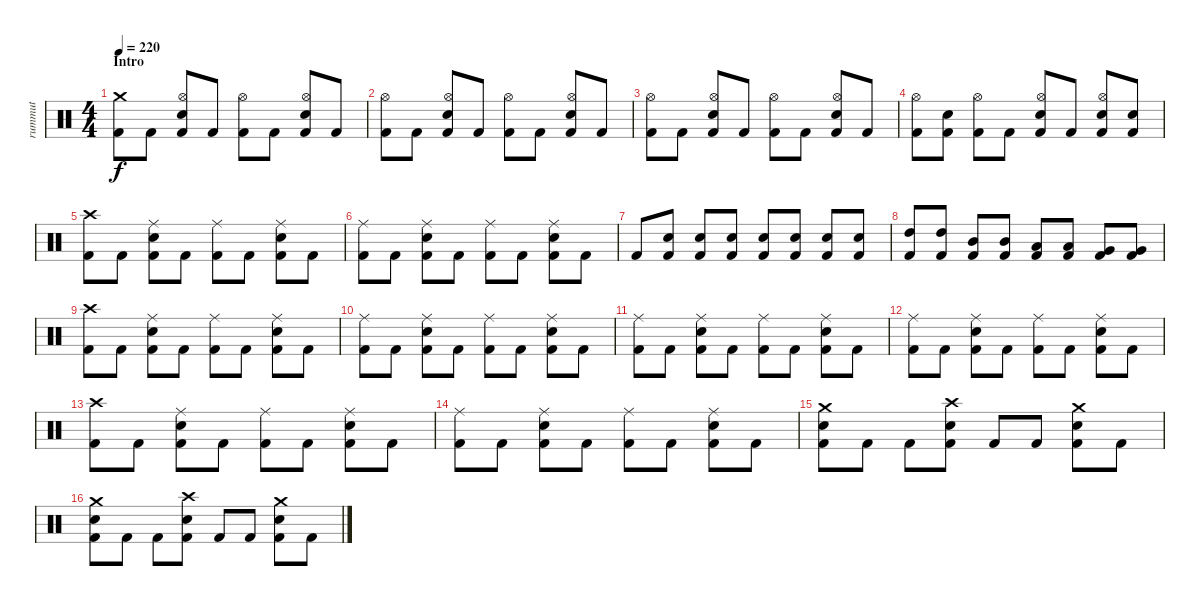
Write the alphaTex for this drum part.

\track ("rummut" "rummut") {instrument percussion}
\staff {score}
\articulation defaults
\ts (4 4)
\section ("" "Intro")
\tempo 220
\clef neutral
\ks c
("Crash medium (hit)" "Kick (hit) 2").8{dy f} "Kick (hit) 2".8 ("Hi-Hat (open)" "Electric Snare (hit)" "Kick (hit) 2").8 "Kick (hit) 2".8 ("Hi-Hat (open)" "Kick (hit) 2").8 "Kick (hit) 2".8 ("Hi-Hat (open)" "Electric Snare (hit)" "Kick (hit) 2").8 "Kick (hit) 2".8 |
("Hi-Hat (open)" "Kick (hit) 2").8 "Kick (hit) 2".8 ("Hi-Hat (open)" "Electric Snare (hit)" "Kick (hit) 2").8 "Kick (hit) 2".8 ("Hi-Hat (open)" "Kick (hit) 2").8 "Kick (hit) 2".8 ("Hi-Hat (open)" "Electric Snare (hit)" "Kick (hit) 2").8 "Kick (hit) 2".8 |
("Hi-Hat (open)" "Kick (hit) 2").8 "Kick (hit) 2".8 ("Hi-Hat (open)" "Electric Snare (hit)" "Kick (hit) 2").8 "Kick (hit) 2".8 ("Hi-Hat (open)" "Kick (hit) 2").8 "Kick (hit) 2".8 ("Hi-Hat (open)" "Electric Snare (hit)" "Kick (hit) 2").8 "Kick (hit) 2".8 |
("Hi-Hat (open)" "Kick (hit) 2").8 ("Electric Snare (hit)" "Kick (hit) 2").8 ("Hi-Hat (open)" "Kick (hit) 2").8 "Kick (hit) 2".8 ("Hi-Hat (open)" "Electric Snare (hit)" "Kick (hit) 2").8 "Kick (hit) 2".8 ("Hi-Hat (open)" "Electric Snare (hit)" "Kick (hit) 2").8 ("Electric Snare (hit)" "Kick (hit) 2").8 |
("Crash high (hit)" "Kick (hit) 2").8 "Kick (hit) 2".8 ("Ride (middle)" "Electric Snare (hit)" "Kick (hit) 2").8 "Kick (hit) 2".8 ("Ride (middle)" "Kick (hit) 2").8 "Kick (hit) 2".8 ("Ride (middle)" "Electric Snare (hit)" "Kick (hit) 2").8 "Kick (hit) 2".8 |
("Ride (middle)" "Kick (hit) 2").8 "Kick (hit) 2".8 ("Ride (middle)" "Electric Snare (hit)" "Kick (hit) 2").8 "Kick (hit) 2".8 ("Ride (middle)" "Kick (hit) 2").8 "Kick (hit) 2".8 ("Ride (middle)" "Electric Snare (hit)" "Kick (hit) 2").8 "Kick (hit) 2".8 |
"Kick (hit) 2".8 ("Electric Snare (hit)" "Kick (hit) 2").8 ("Electric Snare (hit)" "Kick (hit) 2").8 ("Electric Snare (hit)" "Kick (hit) 2").8 ("Electric Snare (hit)" "Kick (hit) 2").8 ("Electric Snare (hit)" "Kick (hit) 2").8 ("Electric Snare (hit)" "Kick (hit) 2").8 ("Electric Snare (hit)" "Kick (hit) 2").8 |
("High Tom (hit)" "Kick (hit) 2").8 ("High Tom (hit)" "Kick (hit) 2").8 ("Mid Tom (hit)" "Kick (hit) 2").8 ("Mid Tom (hit)" "Kick (hit) 2").8 ("Low Tom (hit)" "Kick (hit) 2").8 ("Low Tom (hit)" "Kick (hit) 2").8 ("Very Low Tom (hit)" "Kick (hit) 2").8 ("Very Low Tom (hit)" "Kick (hit) 2").8 |
("Crash high (hit)" "Kick (hit) 2").8 "Kick (hit) 2".8 ("Ride (middle)" "Electric Snare (hit)" "Kick (hit) 2").8 "Kick (hit) 2".8 ("Ride (middle)" "Kick (hit) 2").8 "Kick (hit) 2".8 ("Ride (middle)" "Electric Snare (hit)" "Kick (hit) 2").8 "Kick (hit) 2".8 |
("Ride (middle)" "Kick (hit) 2").8 "Kick (hit) 2".8 ("Ride (middle)" "Electric Snare (hit)" "Kick (hit) 2").8 "Kick (hit) 2".8 ("Ride (middle)" "Kick (hit) 2").8 "Kick (hit) 2".8 ("Ride (middle)" "Electric Snare (hit)" "Kick (hit) 2").8 "Kick (hit) 2".8 |
("Ride (middle)" "Kick (hit) 2").8 "Kick (hit) 2".8 ("Ride (middle)" "Electric Snare (hit)" "Kick (hit) 2").8 "Kick (hit) 2".8 ("Ride (middle)" "Kick (hit) 2").8 "Kick (hit) 2".8 ("Ride (middle)" "Electric Snare (hit)" "Kick (hit) 2").8 "Kick (hit) 2".8 |
("Ride (middle)" "Kick (hit) 2").8 "Kick (hit) 2".8 ("Ride (middle)" "Electric Snare (hit)" "Kick (hit) 2").8 "Kick (hit) 2".8 ("Ride (middle)" "Kick (hit) 2").8 "Kick (hit) 2".8 ("Ride (middle)" "Electric Snare (hit)" "Kick (hit) 2").8 "Kick (hit) 2".8 |
("Crash high (hit)" "Kick (hit) 2").8 "Kick (hit) 2".8 ("Ride (middle)" "Electric Snare (hit)" "Kick (hit) 2").8 "Kick (hit) 2".8 ("Ride (middle)" "Kick (hit) 2").8 "Kick (hit) 2".8 ("Ride (middle)" "Electric Snare (hit)" "Kick (hit) 2").8 "Kick (hit) 2".8 |
("Ride (middle)" "Kick (hit) 2").8 "Kick (hit) 2".8 ("Ride (middle)" "Electric Snare (hit)" "Kick (hit) 2").8 "Kick (hit) 2".8 ("Ride (middle)" "Kick (hit) 2").8 "Kick (hit) 2".8 ("Ride (middle)" "Electric Snare (hit)" "Kick (hit) 2").8 "Kick (hit) 2".8 |
("Crash medium (hit)" "Electric Snare (hit)" "Kick (hit) 2").8 "Kick (hit) 2".8 "Kick (hit) 2".8 ("Crash high (hit)" "Electric Snare (hit)" "Kick (hit) 2").8 "Kick (hit) 2".8 "Kick (hit) 2".8 ("Crash medium (hit)" "Electric Snare (hit)" "Kick (hit) 2").8 "Kick (hit) 2".8 |
("Crash medium (hit)" "Electric Snare (hit)" "Kick (hit) 2").8 "Kick (hit) 2".8 "Kick (hit) 2".8 ("Crash high (hit)" "Electric Snare (hit)" "Kick (hit) 2").8 "Kick (hit) 2".8 "Kick (hit) 2".8 ("Crash medium (hit)" "Electric Snare (hit)" "Kick (hit) 2").8 "Kick (hit) 2".8
